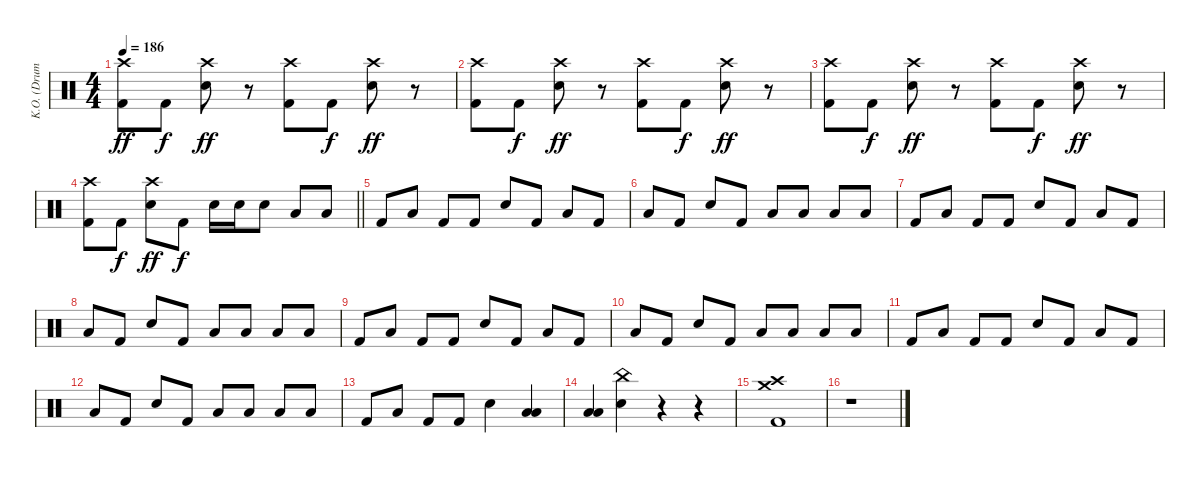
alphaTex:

\track ("K.O. (Drums)" "K.O. (Drum") {instrument percussion}
\staff {score}
\articulation defaults
\ts (4 4)
\tempo 186
\clef neutral
\ks c
("Crash high (hit)" "Kick (hit) 2").8{dy ff} "Kick (hit) 2".8{dy f} ("Crash high (hit)" "Electric Snare (hit)").8{dy ff} r.8 ("Crash high (hit)" "Kick (hit) 2").8 "Kick (hit) 2".8{dy f} ("Crash high (hit)" "Electric Snare (hit)").8{dy ff} r.8 |
("Crash high (hit)" "Kick (hit) 2").8 "Kick (hit) 2".8{dy f} ("Crash high (hit)" "Electric Snare (hit)").8{dy ff} r.8 ("Crash high (hit)" "Kick (hit) 2").8 "Kick (hit) 2".8{dy f} ("Crash high (hit)" "Electric Snare (hit)").8{dy ff} r.8 |
("Crash high (hit)" "Kick (hit) 2").8 "Kick (hit) 2".8{dy f} ("Crash high (hit)" "Electric Snare (hit)").8{dy ff} r.8 ("Crash high (hit)" "Kick (hit) 2").8 "Kick (hit) 2".8{dy f} ("Crash high (hit)" "Electric Snare (hit)").8{dy ff} r.8 |
\barLineRight lightlight
("Crash high (hit)" "Kick (hit) 2").8 "Kick (hit) 2".8{dy f} ("Crash high (hit)" "Electric Snare (hit)").8{dy ff} "Kick (hit) 2".8{dy f} "Electric Snare (hit)".16 "Electric Snare (hit)".16 "Electric Snare (hit)".8 "Low Tom (hit)".8 "Low Tom (hit)".8 |
"Kick (hit) 2".8 "Low Floor Tom (hit)".8 "Kick (hit) 2".8 "Kick (hit) 2".8 "Electric Snare (hit)".8 "Kick (hit) 2".8 "Low Tom (hit)".8 "Kick (hit) 2".8 |
"Low Floor Tom (hit)".8 "Kick (hit) 2".8 "Electric Snare (hit)".8 "Kick (hit) 2".8 "Low Tom (hit)".8 "Low Tom (hit)".8 "Low Floor Tom (hit)".8 "Low Floor Tom (hit)".8 |
"Kick (hit) 2".8 "Low Floor Tom (hit)".8 "Kick (hit) 2".8 "Kick (hit) 2".8 "Electric Snare (hit)".8 "Kick (hit) 2".8 "Low Tom (hit)".8 "Kick (hit) 2".8 |
"Low Floor Tom (hit)".8 "Kick (hit) 2".8 "Electric Snare (hit)".8 "Kick (hit) 2".8 "Low Tom (hit)".8 "Low Tom (hit)".8 "Low Floor Tom (hit)".8 "Low Floor Tom (hit)".8 |
"Kick (hit) 2".8 "Low Floor Tom (hit)".8 "Kick (hit) 2".8 "Kick (hit) 2".8 "Electric Snare (hit)".8 "Kick (hit) 2".8 "Low Tom (hit)".8 "Kick (hit) 2".8 |
"Low Floor Tom (hit)".8 "Kick (hit) 2".8 "Electric Snare (hit)".8 "Kick (hit) 2".8 "Low Tom (hit)".8 "Low Tom (hit)".8 "Low Floor Tom (hit)".8 "Low Floor Tom (hit)".8 |
"Kick (hit) 2".8 "Low Floor Tom (hit)".8 "Kick (hit) 2".8 "Kick (hit) 2".8 "Electric Snare (hit)".8 "Kick (hit) 2".8 "Low Tom (hit)".8 "Kick (hit) 2".8 |
"Low Floor Tom (hit)".8 "Kick (hit) 2".8 "Electric Snare (hit)".8 "Kick (hit) 2".8 "Low Tom (hit)".8 "Low Tom (hit)".8 "Low Floor Tom (hit)".8 "Low Floor Tom (hit)".8 |
"Kick (hit) 2".8 "Low Floor Tom (hit)".8 "Kick (hit) 2".8 "Kick (hit) 2".8 "Electric Snare (hit)".4 ("Low Floor Tom (hit)" "Low Tom (hit)").4 |
("Low Floor Tom (hit)" "Low Tom (hit)").4 ("China (hit)" "Electric Snare (hit)").4 r.4 r.4 |
("Crash high (hit)" "Crash medium (hit)" "Kick (hit) 2").1 |
r.1
